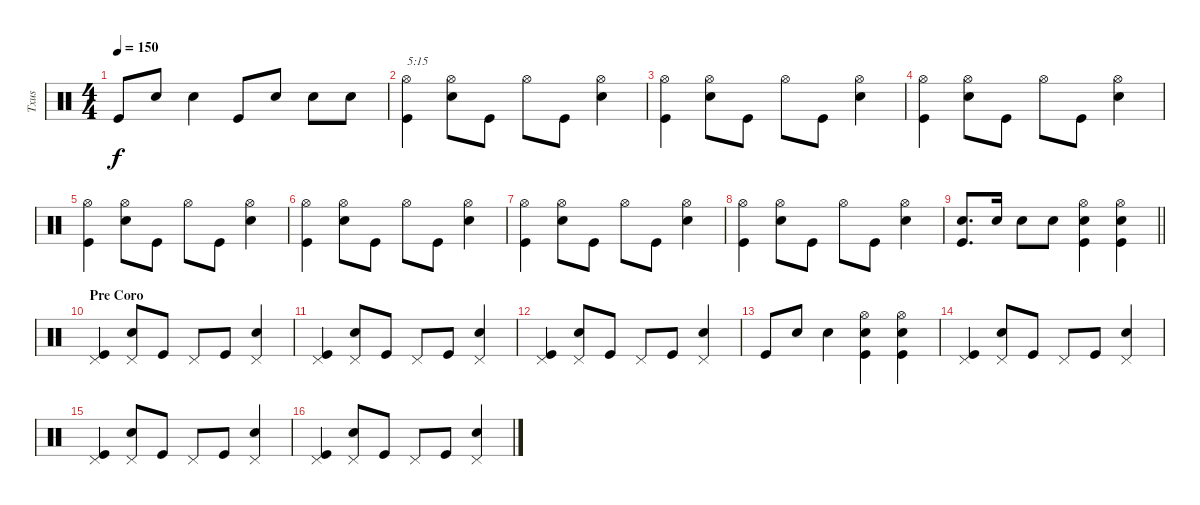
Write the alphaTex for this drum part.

\track ("Txus" "Txus") {instrument percussion}
\staff {score}
\articulation defaults
\ts (4 4)
\tempo 150
\clef neutral
\ks c "Kick (hit)".8{dy f} "Snare (hit) 2".8 "Snare (hit) 2".4 "Kick (hit)".8 "Snare (hit) 2".8 "Snare (hit) 2".8 "Snare (hit) 2".8
|
("Kick (hit)" "Hi-Hat (open)").4{txt "5:15"} ("Snare (hit) 2" "Hi-Hat (open)").8 "Kick (hit)".8 "Hi-Hat (open)".8 "Kick (hit)".8 ("Snare (hit) 2" "Hi-Hat (open)").4 |
("Kick (hit)" "Hi-Hat (open)").4 ("Snare (hit) 2" "Hi-Hat (open)").8 "Kick (hit)".8 "Hi-Hat (open)".8 "Kick (hit)".8 ("Snare (hit) 2" "Hi-Hat (open)").4 |
("Kick (hit)" "Hi-Hat (open)").4 ("Snare (hit) 2" "Hi-Hat (open)").8 "Kick (hit)".8 "Hi-Hat (open)".8 "Kick (hit)".8 ("Snare (hit) 2" "Hi-Hat (open)").4 |
("Kick (hit)" "Hi-Hat (open)").4 ("Snare (hit) 2" "Hi-Hat (open)").8 "Kick (hit)".8 "Hi-Hat (open)".8 "Kick (hit)".8 ("Snare (hit) 2" "Hi-Hat (open)").4 |
("Kick (hit)" "Hi-Hat (open)").4 ("Snare (hit) 2" "Hi-Hat (open)").8 "Kick (hit)".8 "Hi-Hat (open)".8 "Kick (hit)".8 ("Snare (hit) 2" "Hi-Hat (open)").4 |
("Kick (hit)" "Hi-Hat (open)").4 ("Snare (hit) 2" "Hi-Hat (open)").8 "Kick (hit)".8 "Hi-Hat (open)".8 "Kick (hit)".8 ("Snare (hit) 2" "Hi-Hat (open)").4 |
("Kick (hit)" "Hi-Hat (open)").4 ("Snare (hit) 2" "Hi-Hat (open)").8 "Kick (hit)".8 "Hi-Hat (open)".8 "Kick (hit)".8 ("Snare (hit) 2" "Hi-Hat (open)").4 |
\barLineRight lightlight
("Kick (hit)" "Snare (hit) 2").8{d} "Snare (hit) 2".16 "Snare (hit) 2".8 "Snare (hit) 2".8 ("Kick (hit)" "Snare (hit) 2" "Hi-Hat (open)").4 ("Kick (hit)" "Snare (hit) 2" "Hi-Hat (open)").4 |
\section ("" "Pre Coro")
("Kick (hit)" "Pedal Hi-Hat (hit)").4 ("Snare (hit) 2" "Pedal Hi-Hat (hit)").8 "Kick (hit)".8 "Pedal Hi-Hat (hit)".8 "Kick (hit)".8 ("Snare (hit) 2" "Pedal Hi-Hat (hit)").4 |
("Kick (hit)" "Pedal Hi-Hat (hit)").4 ("Snare (hit) 2" "Pedal Hi-Hat (hit)").8 "Kick (hit)".8 "Pedal Hi-Hat (hit)".8 "Kick (hit)".8 ("Snare (hit) 2" "Pedal Hi-Hat (hit)").4 |
("Kick (hit)" "Pedal Hi-Hat (hit)").4 ("Snare (hit) 2" "Pedal Hi-Hat (hit)").8 "Kick (hit)".8 "Pedal Hi-Hat (hit)".8 "Kick (hit)".8 ("Snare (hit) 2" "Pedal Hi-Hat (hit)").4 |
"Kick (hit)".8 "Snare (hit) 2".8 "Snare (hit) 2".4 ("Kick (hit)" "Snare (hit) 2" "Hi-Hat (open)").4 ("Kick (hit)" "Snare (hit) 2" "Hi-Hat (open)").4 |
("Kick (hit)" "Pedal Hi-Hat (hit)").4 ("Snare (hit) 2" "Pedal Hi-Hat (hit)").8 "Kick (hit)".8 "Pedal Hi-Hat (hit)".8 "Kick (hit)".8 ("Snare (hit) 2" "Pedal Hi-Hat (hit)").4 |
("Kick (hit)" "Pedal Hi-Hat (hit)").4 ("Snare (hit) 2" "Pedal Hi-Hat (hit)").8 "Kick (hit)".8 "Pedal Hi-Hat (hit)".8 "Kick (hit)".8 ("Snare (hit) 2" "Pedal Hi-Hat (hit)").4 |
("Kick (hit)" "Pedal Hi-Hat (hit)").4 ("Snare (hit) 2" "Pedal Hi-Hat (hit)").8 "Kick (hit)".8 "Pedal Hi-Hat (hit)".8 "Kick (hit)".8 ("Snare (hit) 2" "Pedal Hi-Hat (hit)").4
